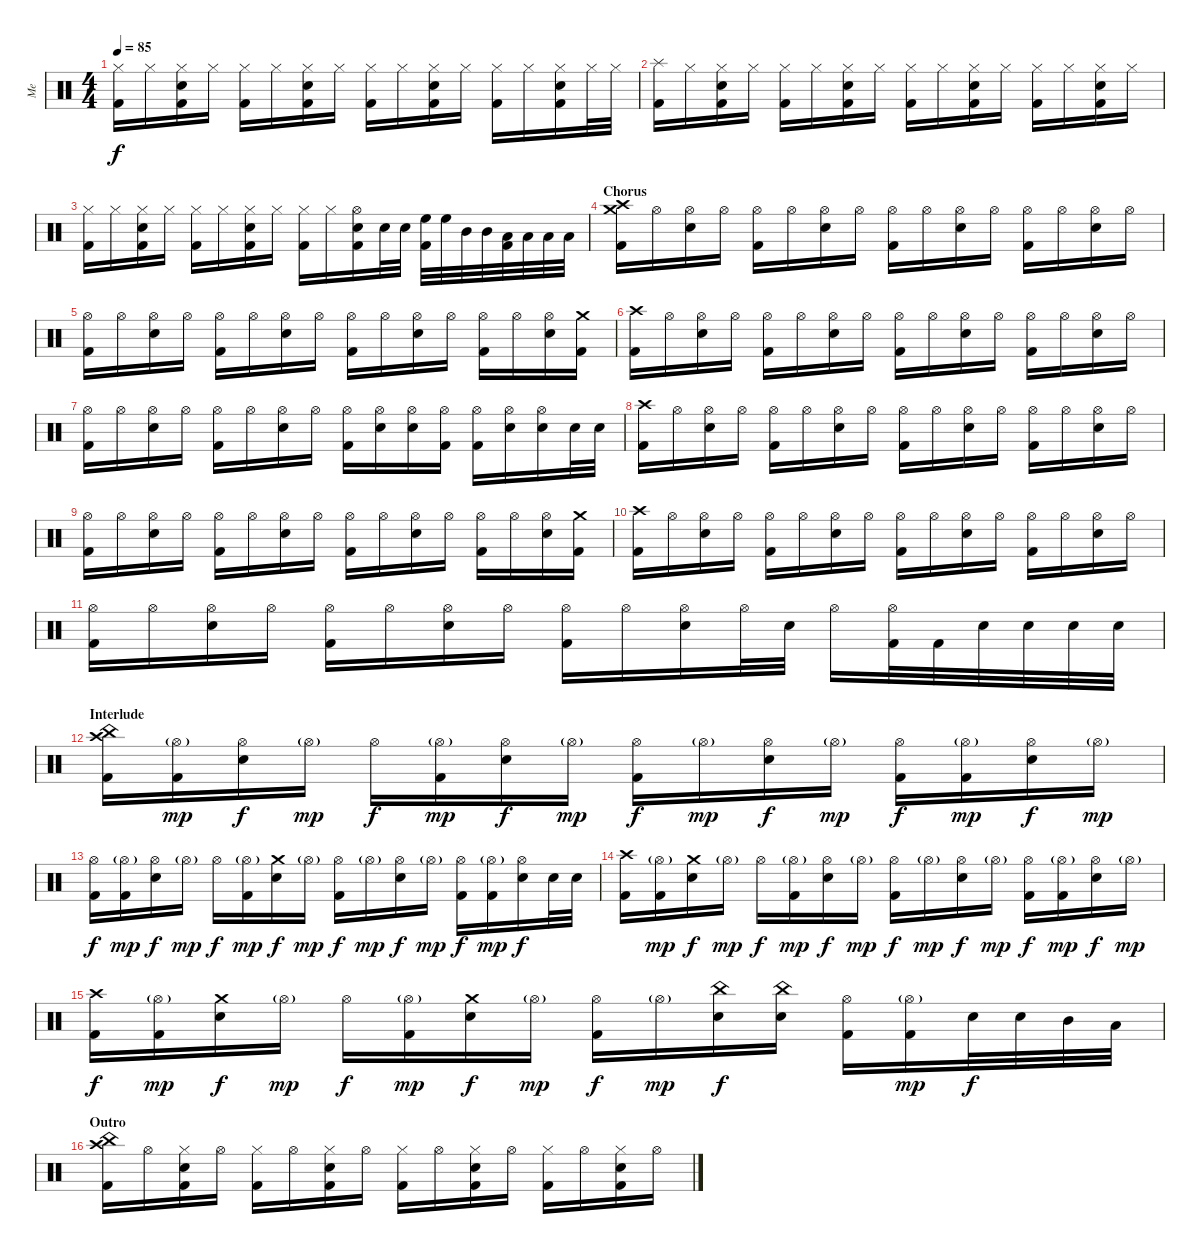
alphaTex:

\track ("Me" "Me") {instrument percussion}
\staff {score}
\articulation defaults
\ts (4 4)
\tempo 85
\clef neutral
\ks c
("Hi-Hat (closed)" "Kick (hit) 2").16{dy f} "Hi-Hat (closed)".16 ("Hi-Hat (closed)" "Electric Snare (hit)" "Kick (hit) 2").16 "Hi-Hat (closed)".16 ("Hi-Hat (closed)" "Kick (hit) 2").16 "Hi-Hat (closed)".16 ("Hi-Hat (closed)" "Electric Snare (hit)" "Kick (hit) 2").16 "Hi-Hat (closed)".16 ("Hi-Hat (closed)" "Kick (hit) 2").16 "Hi-Hat (closed)".16 ("Hi-Hat (closed)" "Electric Snare (hit)" "Kick (hit) 2").16 "Hi-Hat (closed)".16 ("Hi-Hat (closed)" "Kick (hit) 2").16 "Hi-Hat (closed)".16 ("Hi-Hat (closed)" "Electric Snare (hit)" "Kick (hit) 2").16 "Hi-Hat (closed)".32 "Hi-Hat (closed)".32 |
("Splash (hit)" "Kick (hit) 2").16 "Hi-Hat (closed)".16 ("Hi-Hat (closed)" "Electric Snare (hit)" "Kick (hit) 2").16 "Hi-Hat (closed)".16 ("Hi-Hat (closed)" "Kick (hit) 2").16 "Hi-Hat (closed)".16 ("Hi-Hat (closed)" "Electric Snare (hit)" "Kick (hit) 2").16 "Hi-Hat (closed)".16 ("Hi-Hat (closed)" "Kick (hit) 2").16 "Hi-Hat (closed)".16 ("Hi-Hat (closed)" "Electric Snare (hit)" "Kick (hit) 2").16 "Hi-Hat (closed)".16 ("Hi-Hat (closed)" "Kick (hit) 2").16 "Hi-Hat (closed)".16 ("Hi-Hat (closed)" "Electric Snare (hit)" "Kick (hit) 2").16 "Hi-Hat (closed)".16 |
("Hi-Hat (closed)" "Kick (hit) 2").16 "Hi-Hat (closed)".16 ("Hi-Hat (closed)" "Electric Snare (hit)" "Kick (hit) 2").16 "Hi-Hat (closed)".16 ("Hi-Hat (closed)" "Kick (hit) 2").16 "Hi-Hat (closed)".16 ("Hi-Hat (closed)" "Electric Snare (hit)" "Kick (hit) 2").16 "Hi-Hat (closed)".16 ("Hi-Hat (closed)" "Kick (hit) 2").16 "Hi-Hat (closed)".16 ("Hi-Hat (open)" "Electric Snare (hit)" "Kick (hit) 2").16 "Electric Snare (hit)".32 "Electric Snare (hit)".32 ("High Floor Tom (hit)" "Kick (hit) 2").32 "High Floor Tom (hit)".32 "Mid Tom (hit)".32 "Mid Tom (hit)".32 ("Low Tom (hit)" "Kick (hit) 2").32 "Low Tom (hit)".32 "Low Floor Tom (hit)".32 "Low Floor Tom (hit)".32 |
\section ("" "Chorus")
("Crash high (hit)" "Crash medium (hit)" "Kick (hit) 2").16 "Hi-Hat (open)".16 ("Hi-Hat (open)" "Electric Snare (hit)").16 "Hi-Hat (open)".16 ("Hi-Hat (open)" "Kick (hit) 2").16 "Hi-Hat (open)".16 ("Hi-Hat (open)" "Electric Snare (hit)").16 "Hi-Hat (open)".16 ("Hi-Hat (open)" "Kick (hit) 2").16 "Hi-Hat (open)".16 ("Hi-Hat (open)" "Electric Snare (hit)").16 "Hi-Hat (open)".16 ("Hi-Hat (open)" "Kick (hit) 2").16 "Hi-Hat (open)".16 ("Hi-Hat (open)" "Electric Snare (hit)").16 "Hi-Hat (open)".16 |
("Hi-Hat (open)" "Kick (hit) 2").16 "Hi-Hat (open)".16 ("Hi-Hat (open)" "Electric Snare (hit)").16 "Hi-Hat (open)".16 ("Hi-Hat (open)" "Kick (hit) 2").16 "Hi-Hat (open)".16 ("Hi-Hat (open)" "Electric Snare (hit)").16 "Hi-Hat (open)".16 ("Hi-Hat (open)" "Kick (hit) 2").16 "Hi-Hat (open)".16 ("Hi-Hat (open)" "Electric Snare (hit)").16 "Hi-Hat (open)".16 ("Hi-Hat (open)" "Kick (hit) 2").16 "Hi-Hat (open)".16 ("Hi-Hat (open)" "Electric Snare (hit)").16 ("Crash medium (hit)" "Kick (hit) 2").16 |
("Crash high (hit)" "Kick (hit) 2").16 "Hi-Hat (open)".16 ("Hi-Hat (open)" "Electric Snare (hit)").16 "Hi-Hat (open)".16 ("Hi-Hat (open)" "Kick (hit) 2").16 "Hi-Hat (open)".16 ("Hi-Hat (open)" "Electric Snare (hit)").16 "Hi-Hat (open)".16 ("Hi-Hat (open)" "Kick (hit) 2").16 "Hi-Hat (open)".16 ("Hi-Hat (open)" "Electric Snare (hit)").16 "Hi-Hat (open)".16 ("Hi-Hat (open)" "Kick (hit) 2").16 "Hi-Hat (open)".16 ("Hi-Hat (open)" "Electric Snare (hit)").16 "Hi-Hat (open)".16 |
("Hi-Hat (open)" "Kick (hit) 2").16 "Hi-Hat (open)".16 ("Hi-Hat (open)" "Electric Snare (hit)").16 "Hi-Hat (open)".16 ("Hi-Hat (open)" "Kick (hit) 2").16 "Hi-Hat (open)".16 ("Hi-Hat (open)" "Electric Snare (hit)").16 "Hi-Hat (open)".16 ("Hi-Hat (open)" "Kick (hit) 2").16 ("Hi-Hat (open)" "Electric Snare (hit)").16 ("Hi-Hat (open)" "Electric Snare (hit)").16 ("Hi-Hat (open)" "Kick (hit) 2").16 ("Hi-Hat (open)" "Kick (hit) 2").16 ("Hi-Hat (open)" "Electric Snare (hit)").16 ("Hi-Hat (open)" "Electric Snare (hit)").16 "Electric Snare (hit)".32 "Electric Snare (hit)".32 |
("Crash high (hit)" "Kick (hit) 2").16 "Hi-Hat (open)".16 ("Hi-Hat (open)" "Electric Snare (hit)").16 "Hi-Hat (open)".16 ("Hi-Hat (open)" "Kick (hit) 2").16 "Hi-Hat (open)".16 ("Hi-Hat (open)" "Electric Snare (hit)").16 "Hi-Hat (open)".16 ("Hi-Hat (open)" "Kick (hit) 2").16 "Hi-Hat (open)".16 ("Hi-Hat (open)" "Electric Snare (hit)").16 "Hi-Hat (open)".16 ("Hi-Hat (open)" "Kick (hit) 2").16 "Hi-Hat (open)".16 ("Hi-Hat (open)" "Electric Snare (hit)").16 "Hi-Hat (open)".16 |
("Hi-Hat (open)" "Kick (hit) 2").16 "Hi-Hat (open)".16 ("Hi-Hat (open)" "Electric Snare (hit)").16 "Hi-Hat (open)".16 ("Hi-Hat (open)" "Kick (hit) 2").16 "Hi-Hat (open)".16 ("Hi-Hat (open)" "Electric Snare (hit)").16 "Hi-Hat (open)".16 ("Hi-Hat (open)" "Kick (hit) 2").16 "Hi-Hat (open)".16 ("Hi-Hat (open)" "Electric Snare (hit)").16 "Hi-Hat (open)".16 ("Hi-Hat (open)" "Kick (hit) 2").16 "Hi-Hat (open)".16 ("Hi-Hat (open)" "Electric Snare (hit)").16 ("Crash medium (hit)" "Kick (hit) 2").16 |
("Crash high (hit)" "Kick (hit) 2").16 "Hi-Hat (open)".16 ("Hi-Hat (open)" "Electric Snare (hit)").16 "Hi-Hat (open)".16 ("Hi-Hat (open)" "Kick (hit) 2").16 "Hi-Hat (open)".16 ("Hi-Hat (open)" "Electric Snare (hit)").16 "Hi-Hat (open)".16 ("Hi-Hat (open)" "Kick (hit) 2").16 "Hi-Hat (open)".16 ("Hi-Hat (open)" "Electric Snare (hit)").16 "Hi-Hat (open)".16 ("Hi-Hat (open)" "Kick (hit) 2").16 "Hi-Hat (open)".16 ("Hi-Hat (open)" "Electric Snare (hit)").16 "Hi-Hat (open)".16 |
("Hi-Hat (open)" "Kick (hit) 2").16 "Hi-Hat (open)".16 ("Hi-Hat (open)" "Electric Snare (hit)").16 "Hi-Hat (open)".16 ("Hi-Hat (open)" "Kick (hit) 2").16 "Hi-Hat (open)".16 ("Hi-Hat (open)" "Electric Snare (hit)").16 "Hi-Hat (open)".16 ("Hi-Hat (open)" "Kick (hit) 2").16 "Hi-Hat (open)".16 ("Hi-Hat (open)" "Electric Snare (hit)").16 "Hi-Hat (open)".32 "Electric Snare (hit)".32 "Hi-Hat (open)".16 ("Hi-Hat (open)" "Kick (hit) 2").32 "Kick (hit) 2".32 "Electric Snare (hit)".32 "Electric Snare (hit)".32 "Electric Snare (hit)".32 "Electric Snare (hit)".32 |
\section ("" "Interlude")
("Crash high (hit)" "China (hit)" "Kick (hit) 2").16 ("Hi-Hat (open)"{g} "Kick (hit) 2").16{dy mp} ("Hi-Hat (open)" "Electric Snare (hit)").16{dy f} "Hi-Hat (open)"{g}.16{dy mp} "Hi-Hat (open)".16{dy f} ("Hi-Hat (open)"{g} "Kick (hit) 2").16{dy mp} ("Hi-Hat (open)" "Electric Snare (hit)").16{dy f} "Hi-Hat (open)"{g}.16{dy mp} ("Hi-Hat (open)" "Kick (hit) 2").16{dy f} "Hi-Hat (open)"{g}.16{dy mp} ("Hi-Hat (open)" "Electric Snare (hit)").16{dy f} "Hi-Hat (open)"{g}.16{dy mp} ("Hi-Hat (open)" "Kick (hit) 2").16{dy f} ("Hi-Hat (open)"{g} "Kick (hit) 2").16{dy mp} ("Hi-Hat (open)" "Electric Snare (hit)").16{dy f} "Hi-Hat (open)"{g}.16{dy mp} |
("Hi-Hat (open)" "Kick (hit) 2").16{dy f} ("Hi-Hat (open)"{g} "Kick (hit) 2").16{dy mp} ("Hi-Hat (open)" "Electric Snare (hit)").16{dy f} "Hi-Hat (open)"{g}.16{dy mp} "Hi-Hat (open)".16{dy f} ("Hi-Hat (open)"{g} "Kick (hit) 2").16{dy mp} ("Crash medium (hit)" "Electric Snare (hit)").16{dy f} "Hi-Hat (open)"{g}.16{dy mp} ("Hi-Hat (open)" "Kick (hit) 2").16{dy f} "Hi-Hat (open)"{g}.16{dy mp} ("Hi-Hat (open)" "Electric Snare (hit)").16{dy f} "Hi-Hat (open)"{g}.16{dy mp} ("Hi-Hat (open)" "Kick (hit) 2").16{dy f} ("Hi-Hat (open)"{g} "Kick (hit) 2").16{dy mp} ("Hi-Hat (open)" "Electric Snare (hit)").16{dy f} "Electric Snare (hit)".32 "Electric Snare (hit)".32 |
("Crash high (hit)" "Kick (hit) 2").16 ("Hi-Hat (open)"{g} "Kick (hit) 2").16{dy mp} ("Crash medium (hit)" "Electric Snare (hit)").16{dy f} "Hi-Hat (open)"{g}.16{dy mp} "Hi-Hat (open)".16{dy f} ("Hi-Hat (open)"{g} "Kick (hit) 2").16{dy mp} ("Hi-Hat (open)" "Electric Snare (hit)").16{dy f} "Hi-Hat (open)"{g}.16{dy mp} ("Hi-Hat (open)" "Kick (hit) 2").16{dy f} "Hi-Hat (open)"{g}.16{dy mp} ("Hi-Hat (open)" "Electric Snare (hit)").16{dy f} "Hi-Hat (open)"{g}.16{dy mp} ("Hi-Hat (open)" "Kick (hit) 2").16{dy f} ("Hi-Hat (open)"{g} "Kick (hit) 2").16{dy mp} ("Hi-Hat (open)" "Electric Snare (hit)").16{dy f} "Hi-Hat (open)"{g}.16{dy mp} |
("Crash high (hit)" "Kick (hit) 2").16{dy f} ("Hi-Hat (open)"{g} "Kick (hit) 2").16{dy mp} ("Crash medium (hit)" "Electric Snare (hit)").16{dy f} "Hi-Hat (open)"{g}.16{dy mp} "Hi-Hat (open)".16{dy f} ("Hi-Hat (open)"{g} "Kick (hit) 2").16{dy mp} ("Crash medium (hit)" "Electric Snare (hit)").16{dy f} "Hi-Hat (open)"{g}.16{dy mp} ("Hi-Hat (open)" "Kick (hit) 2").16{dy f} "Hi-Hat (open)"{g}.16{dy mp} ("China (hit)" "Electric Snare (hit)").16{dy f} ("China (hit)" "Electric Snare (hit)").16 ("Hi-Hat (open)" "Kick (hit) 2").16 ("Hi-Hat (open)"{g} "Kick (hit) 2").16{dy mp} "Electric Snare (hit)".32{dy f} "Electric Snare (hit)".32 "Mid Tom (hit)".32 "Low Tom (hit)".32 |
\section ("" "Outro")
("Crash high (hit)" "China (hit)" "Kick (hit) 2").16 "Hi-Hat (open)".16 ("Hi-Hat (closed)" "Electric Snare (hit)" "Kick (hit) 2").16 "Hi-Hat (open)".16 ("Hi-Hat (closed)" "Kick (hit) 2").16 "Hi-Hat (open)".16 ("Hi-Hat (closed)" "Electric Snare (hit)" "Kick (hit) 2").16 "Hi-Hat (open)".16 ("Hi-Hat (closed)" "Kick (hit) 2").16 "Hi-Hat (open)".16 ("Hi-Hat (closed)" "Electric Snare (hit)" "Kick (hit) 2").16 "Hi-Hat (open)".16 ("Hi-Hat (closed)" "Kick (hit) 2").16 "Hi-Hat (open)".16 ("Hi-Hat (closed)" "Electric Snare (hit)" "Kick (hit) 2").16 "Hi-Hat (open)".16
